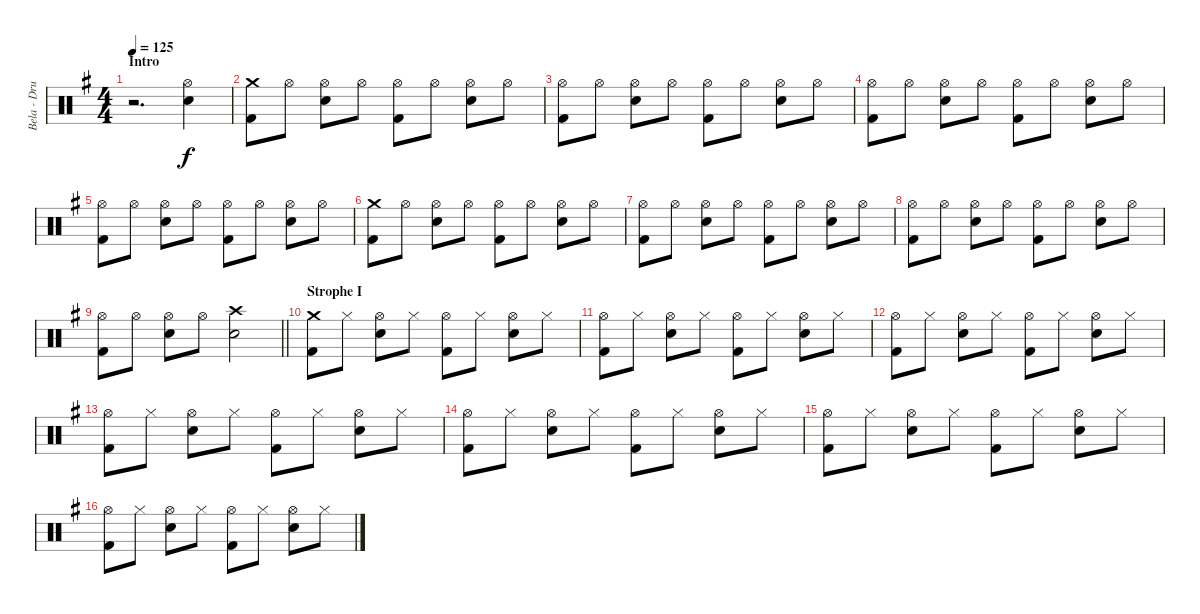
\track ("Bela - Drums" "Bela - Dru") {instrument percussion}
\staff {score}
\articulation defaults
\ts (4 4)
\section ("" "Intro")
\tempo 125
\clef neutral
\ks g
r.2{d dy f} ("Hi-Hat (open)" "Snare (hit) 2").4 |
("Crash medium (hit)" "Kick (hit) 2").8 "Hi-Hat (open)".8 ("Hi-Hat (open)" "Snare (hit) 2").8 "Hi-Hat (open)".8 ("Hi-Hat (open)" "Kick (hit) 2").8 "Hi-Hat (open)".8 ("Hi-Hat (open)" "Snare (hit) 2").8 "Hi-Hat (open)".8 |
("Hi-Hat (open)" "Kick (hit) 2").8 "Hi-Hat (open)".8 ("Hi-Hat (open)" "Snare (hit) 2").8 "Hi-Hat (open)".8 ("Hi-Hat (open)" "Kick (hit) 2").8 "Hi-Hat (open)".8 ("Hi-Hat (open)" "Snare (hit) 2").8 "Hi-Hat (open)".8 |
("Hi-Hat (open)" "Kick (hit) 2").8 "Hi-Hat (open)".8 ("Hi-Hat (open)" "Snare (hit) 2").8 "Hi-Hat (open)".8 ("Hi-Hat (open)" "Kick (hit) 2").8 "Hi-Hat (open)".8 ("Hi-Hat (open)" "Snare (hit) 2").8 "Hi-Hat (open)".8 |
("Hi-Hat (open)" "Kick (hit) 2").8 "Hi-Hat (open)".8 ("Hi-Hat (open)" "Snare (hit) 2").8 "Hi-Hat (open)".8 ("Hi-Hat (open)" "Kick (hit) 2").8 "Hi-Hat (open)".8 ("Hi-Hat (open)" "Snare (hit) 2").8 "Hi-Hat (open)".8 |
("Crash medium (hit)" "Kick (hit) 2").8 "Hi-Hat (open)".8 ("Hi-Hat (open)" "Snare (hit) 2").8 "Hi-Hat (open)".8 ("Hi-Hat (open)" "Kick (hit) 2").8 "Hi-Hat (open)".8 ("Hi-Hat (open)" "Snare (hit) 2").8 "Hi-Hat (open)".8 |
("Hi-Hat (open)" "Kick (hit) 2").8 "Hi-Hat (open)".8 ("Hi-Hat (open)" "Snare (hit) 2").8 "Hi-Hat (open)".8 ("Hi-Hat (open)" "Kick (hit) 2").8 "Hi-Hat (open)".8 ("Hi-Hat (open)" "Snare (hit) 2").8 "Hi-Hat (open)".8 |
("Hi-Hat (open)" "Kick (hit) 2").8 "Hi-Hat (open)".8 ("Hi-Hat (open)" "Snare (hit) 2").8 "Hi-Hat (open)".8 ("Hi-Hat (open)" "Kick (hit) 2").8 "Hi-Hat (open)".8 ("Hi-Hat (open)" "Snare (hit) 2").8 "Hi-Hat (open)".8 |
\barLineRight lightlight
("Hi-Hat (open)" "Kick (hit) 2").8 "Hi-Hat (open)".8 ("Hi-Hat (open)" "Snare (hit) 2").8 "Hi-Hat (open)".8 ("Crash high (hit)" "Snare (hit) 2").2 |
\section ("" "Strophe I")
("Crash medium (hit)" "Kick (hit) 2").8 "Hi-Hat (closed)".8 ("Hi-Hat (open)" "Snare (hit) 2").8 "Hi-Hat (closed)".8 ("Hi-Hat (open)" "Kick (hit) 2").8 "Hi-Hat (closed)".8 ("Hi-Hat (open)" "Snare (hit) 2").8 "Hi-Hat (closed)".8 |
("Hi-Hat (open)" "Kick (hit) 2").8 "Hi-Hat (closed)".8 ("Hi-Hat (open)" "Snare (hit) 2").8 "Hi-Hat (closed)".8 ("Hi-Hat (open)" "Kick (hit) 2").8 "Hi-Hat (closed)".8 ("Hi-Hat (open)" "Snare (hit) 2").8 "Hi-Hat (closed)".8 |
("Hi-Hat (open)" "Kick (hit) 2").8 "Hi-Hat (closed)".8 ("Hi-Hat (open)" "Snare (hit) 2").8 "Hi-Hat (closed)".8 ("Hi-Hat (open)" "Kick (hit) 2").8 "Hi-Hat (closed)".8 ("Hi-Hat (open)" "Snare (hit) 2").8 "Hi-Hat (closed)".8 |
("Hi-Hat (open)" "Kick (hit) 2").8 "Hi-Hat (closed)".8 ("Hi-Hat (open)" "Snare (hit) 2").8 "Hi-Hat (closed)".8 ("Hi-Hat (open)" "Kick (hit) 2").8 "Hi-Hat (closed)".8 ("Hi-Hat (open)" "Snare (hit) 2").8 "Hi-Hat (closed)".8 |
("Hi-Hat (open)" "Kick (hit) 2").8 "Hi-Hat (closed)".8 ("Hi-Hat (open)" "Snare (hit) 2").8 "Hi-Hat (closed)".8 ("Hi-Hat (open)" "Kick (hit) 2").8 "Hi-Hat (closed)".8 ("Hi-Hat (open)" "Snare (hit) 2").8 "Hi-Hat (closed)".8 |
("Hi-Hat (open)" "Kick (hit) 2").8 "Hi-Hat (closed)".8 ("Hi-Hat (open)" "Snare (hit) 2").8 "Hi-Hat (closed)".8 ("Hi-Hat (open)" "Kick (hit) 2").8 "Hi-Hat (closed)".8 ("Hi-Hat (open)" "Snare (hit) 2").8 "Hi-Hat (closed)".8 |
("Hi-Hat (open)" "Kick (hit) 2").8 "Hi-Hat (closed)".8 ("Hi-Hat (open)" "Snare (hit) 2").8 "Hi-Hat (closed)".8 ("Hi-Hat (open)" "Kick (hit) 2").8 "Hi-Hat (closed)".8 ("Hi-Hat (open)" "Snare (hit) 2").8 "Hi-Hat (closed)".8
